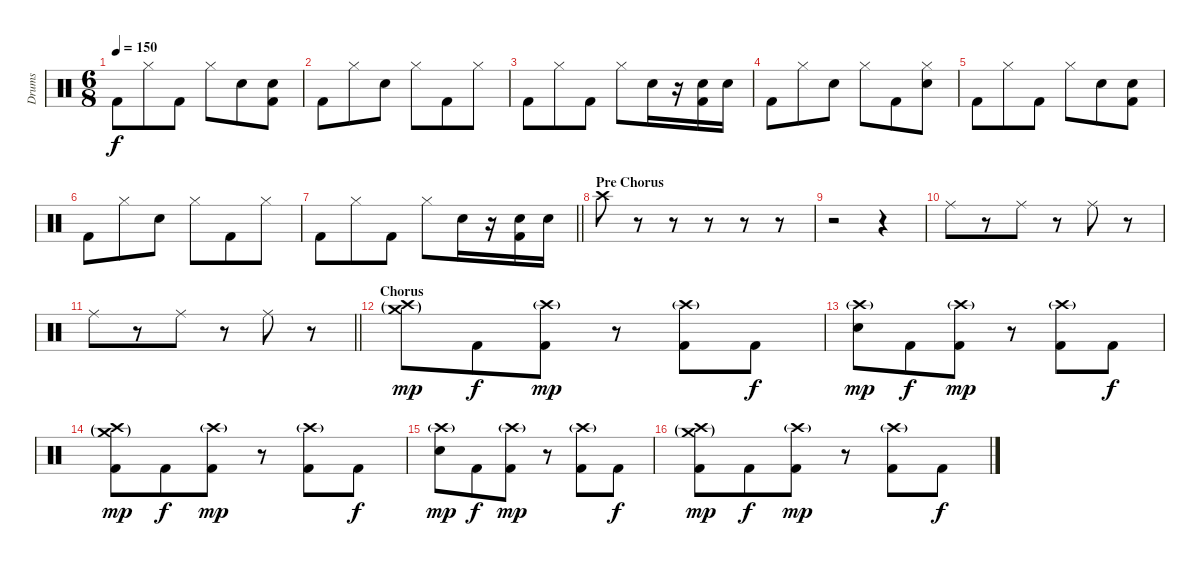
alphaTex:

\track ("Drums" "Drums") {mute instrument percussion}
\staff {score}
\articulation defaults
\ts (6 8)
\tempo 150
\clef neutral
\ks c "Kick (hit) 2".8{dy f} "Hi-Hat (closed)".8 "Kick (hit) 2".8 "Hi-Hat (closed)".8 "Electric Snare (hit)".8
("Electric Snare (hit)" "Kick (hit) 2").8 |
"Kick (hit) 2".8 "Hi-Hat (closed)".8 "Electric Snare (hit)".8 "Hi-Hat (closed)".8 "Kick (hit) 2".8 "Hi-Hat (closed)".8 |
"Kick (hit) 2".8 "Hi-Hat (closed)".8 "Kick (hit) 2".8 "Hi-Hat (closed)".8 "Electric Snare (hit)".16 r.16 ("Electric Snare (hit)" "Kick (hit) 2").16 "Electric Snare (hit)".16 |
"Kick (hit) 2".8 "Hi-Hat (closed)".8 "Electric Snare (hit)".8 "Hi-Hat (closed)".8 "Kick (hit) 2".8 ("Hi-Hat (closed)" "Electric Snare (hit)").8 |
"Kick (hit) 2".8 "Hi-Hat (closed)".8 "Kick (hit) 2".8 "Hi-Hat (closed)".8 "Electric Snare (hit)".8 ("Electric Snare (hit)" "Kick (hit) 2").8 |
"Kick (hit) 2".8 "Hi-Hat (closed)".8 "Electric Snare (hit)".8 "Hi-Hat (closed)".8 "Kick (hit) 2".8 "Hi-Hat (closed)".8 |
\barLineRight lightlight "Kick (hit) 2".8 "Hi-Hat (closed)".8 "Kick (hit) 2".8 "Hi-Hat (closed)".8 "Electric Snare (hit)".16
r.16 ("Electric Snare (hit)" "Kick (hit) 2").16 "Electric Snare (hit)".16 |
\section ("" "Pre Chorus")
"Crash high (hit)".8 r.8 r.8 r.8 r.8 r.8 |
r.2 r.4 |
"Ride (middle)".8 r.8 "Ride (middle)".8 r.8 "Ride (middle)".8 r.8 |
\barLineRight lightlight "Ride (middle)".8
r.8 "Ride (middle)".8 r.8 "Ride (middle)".8 r.8 |
\section ("" "Chorus")
("Crash medium (hit)"{g} "Crash high (hit)"{g}).8{dy mp} "Kick (hit) 2".8{dy f} ("Crash high (hit)"{g} "Kick (hit) 2").8{dy mp} r.8 ("Crash high (hit)"{g} "Kick (hit) 2").8 "Kick (hit) 2".8{dy f} |
("Crash high (hit)"{g} "Electric Snare (hit)").8{dy mp} "Kick (hit) 2".8{dy f} ("Crash high (hit)"{g} "Kick (hit) 2").8{dy mp} r.8 ("Crash high (hit)"{g} "Kick (hit) 2").8 "Kick (hit) 2".8{dy f} |
("Crash medium (hit)"{g} "Crash high (hit)"{g} "Kick (hit) 2").8{dy mp} "Kick (hit) 2".8{dy f} ("Crash high (hit)"{g} "Kick (hit) 2").8{dy mp} r.8 ("Crash high (hit)"{g} "Kick (hit) 2").8 "Kick (hit) 2".8{dy f} |
("Crash high (hit)"{g} "Electric Snare (hit)").8{dy mp} "Kick (hit) 2".8{dy f} ("Crash high (hit)"{g} "Kick (hit) 2").8{dy mp} r.8 ("Crash high (hit)"{g} "Kick (hit) 2").8 "Kick (hit) 2".8{dy f} |
("Crash medium (hit)"{g} "Crash high (hit)"{g} "Kick (hit) 2").8{dy mp} "Kick (hit) 2".8{dy f} ("Crash high (hit)"{g} "Kick (hit) 2").8{dy mp} r.8 ("Crash high (hit)"{g} "Kick (hit) 2").8 "Kick (hit) 2".8{dy f}
